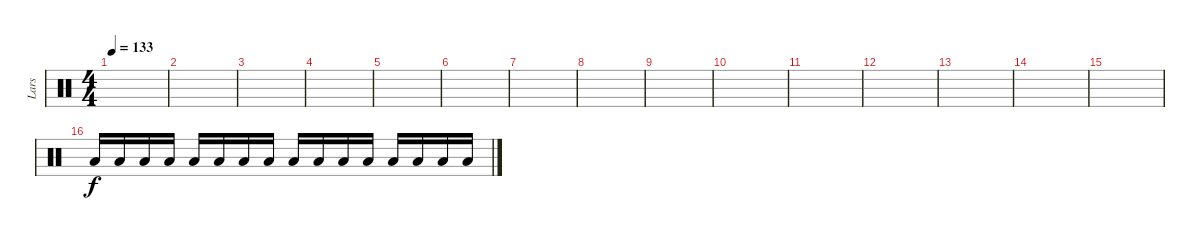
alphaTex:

\track ("Lars" "Lars") {instrument percussion}
\staff {score}
\articulation defaults
\ts (4 4)
\tempo 133
\clef neutral
\ks c
|
|
|
|
|
|
|
|
|
|
|
|
|
|
|
"Low Floor Tom (hit)".16 "Low Floor Tom (hit)".16 "Low Floor Tom (hit)".16 "Low Floor Tom (hit)".16 "Low Floor Tom (hit)".16 "Low Floor Tom (hit)".16 "Low Floor Tom (hit)".16 "Low Floor Tom (hit)".16 "Low Floor Tom (hit)".16 "Low Floor Tom (hit)".16 "Low Floor Tom (hit)".16 "Low Floor Tom (hit)".16 "Low Floor Tom (hit)".16 "Low Floor Tom (hit)".16 "Low Floor Tom (hit)".16 "Low Floor Tom (hit)".16
